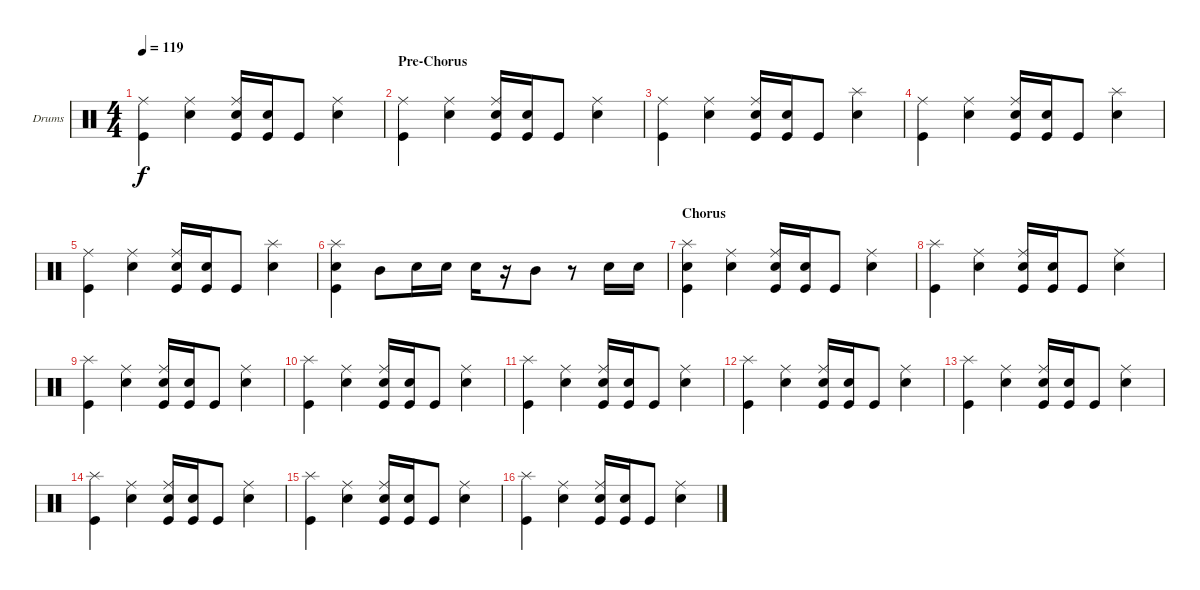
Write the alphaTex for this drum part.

\defaultSystemsLayout 4
\bracketExtendMode groupsimilarinstruments
\firstSystemTrackNameOrientation horizontal
\otherSystemsTrackNameOrientation horizontal
\track ("Drumkit" "Drums") {instrument percussion}
\staff {score}
\articulation defaults
\ts (4 4)
\tempo 119
\clef neutral
\ks c
("Kick (hit)" "Ride (middle)").4{dy f} ("Snare (hit) 2" "Ride (middle)").4 ("Kick (hit)" "Snare (hit) 2" "Ride (middle)").16 ("Kick (hit)" "Snare (hit) 2").16 "Kick (hit)".8 ("Snare (hit) 2" "Ride (middle)").4 |
\section ("" "Pre-Chorus")
("Kick (hit)" "Ride (middle)").4 ("Snare (hit) 2" "Ride (middle)").4 ("Kick (hit)" "Snare (hit) 2" "Ride (middle)").16 ("Kick (hit)" "Snare (hit) 2").16 "Kick (hit)".8 ("Snare (hit) 2" "Ride (middle)").4 |
("Kick (hit)" "Ride (middle)").4 ("Snare (hit) 2" "Ride (middle)").4 ("Kick (hit)" "Snare (hit) 2" "Ride (middle)").16 ("Kick (hit)" "Snare (hit) 2").16 "Kick (hit)".8 ("Snare (hit) 2" "Splash (hit)").4 |
("Kick (hit)" "Ride (middle)").4 ("Snare (hit) 2" "Ride (middle)").4 ("Kick (hit)" "Snare (hit) 2" "Ride (middle)").16 ("Kick (hit)" "Snare (hit) 2").16 "Kick (hit)".8 ("Snare (hit) 2" "Splash (hit)").4 |
("Kick (hit)" "Ride (middle)").4 ("Snare (hit) 2" "Ride (middle)").4 ("Kick (hit)" "Snare (hit) 2" "Ride (middle)").16 ("Kick (hit)" "Snare (hit) 2").16 "Kick (hit)".8 ("Snare (hit) 2" "Splash (hit)").4 |
("Kick (hit)" "Snare (hit) 2" "Splash (hit)").4 "Mid Tom (hit)".8 "Snare (hit) 2".16 "Snare (hit) 2".16 "Snare (hit) 2".16 r.16 "Mid Tom (hit)".8 r.8 "Snare (hit) 2".16 "Snare (hit) 2".16 |
\section ("" "Chorus")
("Kick (hit)" "Splash (hit)" "Snare (hit) 2").4 ("Snare (hit) 2" "Ride (middle)").4 ("Kick (hit)" "Snare (hit) 2" "Ride (middle)").16 ("Kick (hit)" "Snare (hit) 2").16 "Kick (hit)".8 ("Snare (hit) 2" "Ride (middle)").4 |
("Kick (hit)" "Splash (hit)").4 ("Snare (hit) 2" "Ride (middle)").4 ("Kick (hit)" "Snare (hit) 2" "Ride (middle)").16 ("Kick (hit)" "Snare (hit) 2").16 "Kick (hit)".8 ("Snare (hit) 2" "Ride (middle)").4 |
("Kick (hit)" "Splash (hit)").4 ("Snare (hit) 2" "Ride (middle)").4 ("Kick (hit)" "Snare (hit) 2" "Ride (middle)").16 ("Kick (hit)" "Snare (hit) 2").16 "Kick (hit)".8 ("Snare (hit) 2" "Ride (middle)").4 |
("Kick (hit)" "Splash (hit)").4 ("Snare (hit) 2" "Ride (middle)").4 ("Kick (hit)" "Snare (hit) 2" "Ride (middle)").16 ("Kick (hit)" "Snare (hit) 2").16 "Kick (hit)".8 ("Snare (hit) 2" "Ride (middle)").4 |
("Kick (hit)" "Splash (hit)").4 ("Snare (hit) 2" "Ride (middle)").4 ("Kick (hit)" "Snare (hit) 2" "Ride (middle)").16 ("Kick (hit)" "Snare (hit) 2").16 "Kick (hit)".8 ("Snare (hit) 2" "Ride (middle)").4 |
("Kick (hit)" "Splash (hit)").4 ("Snare (hit) 2" "Ride (middle)").4 ("Kick (hit)" "Snare (hit) 2" "Ride (middle)").16 ("Kick (hit)" "Snare (hit) 2").16 "Kick (hit)".8 ("Snare (hit) 2" "Ride (middle)").4 |
("Kick (hit)" "Splash (hit)").4 ("Snare (hit) 2" "Ride (middle)").4 ("Kick (hit)" "Snare (hit) 2" "Ride (middle)").16 ("Kick (hit)" "Snare (hit) 2").16 "Kick (hit)".8 ("Snare (hit) 2" "Ride (middle)").4 |
("Kick (hit)" "Splash (hit)").4 ("Snare (hit) 2" "Ride (middle)").4 ("Kick (hit)" "Snare (hit) 2" "Ride (middle)").16 ("Kick (hit)" "Snare (hit) 2").16 "Kick (hit)".8 ("Snare (hit) 2" "Ride (middle)").4 |
("Kick (hit)" "Splash (hit)").4 ("Snare (hit) 2" "Ride (middle)").4 ("Kick (hit)" "Snare (hit) 2" "Ride (middle)").16 ("Kick (hit)" "Snare (hit) 2").16 "Kick (hit)".8 ("Snare (hit) 2" "Ride (middle)").4 |
("Kick (hit)" "Splash (hit)").4 ("Snare (hit) 2" "Ride (middle)").4 ("Kick (hit)" "Snare (hit) 2" "Ride (middle)").16 ("Kick (hit)" "Snare (hit) 2").16 "Kick (hit)".8 ("Snare (hit) 2" "Ride (middle)").4
